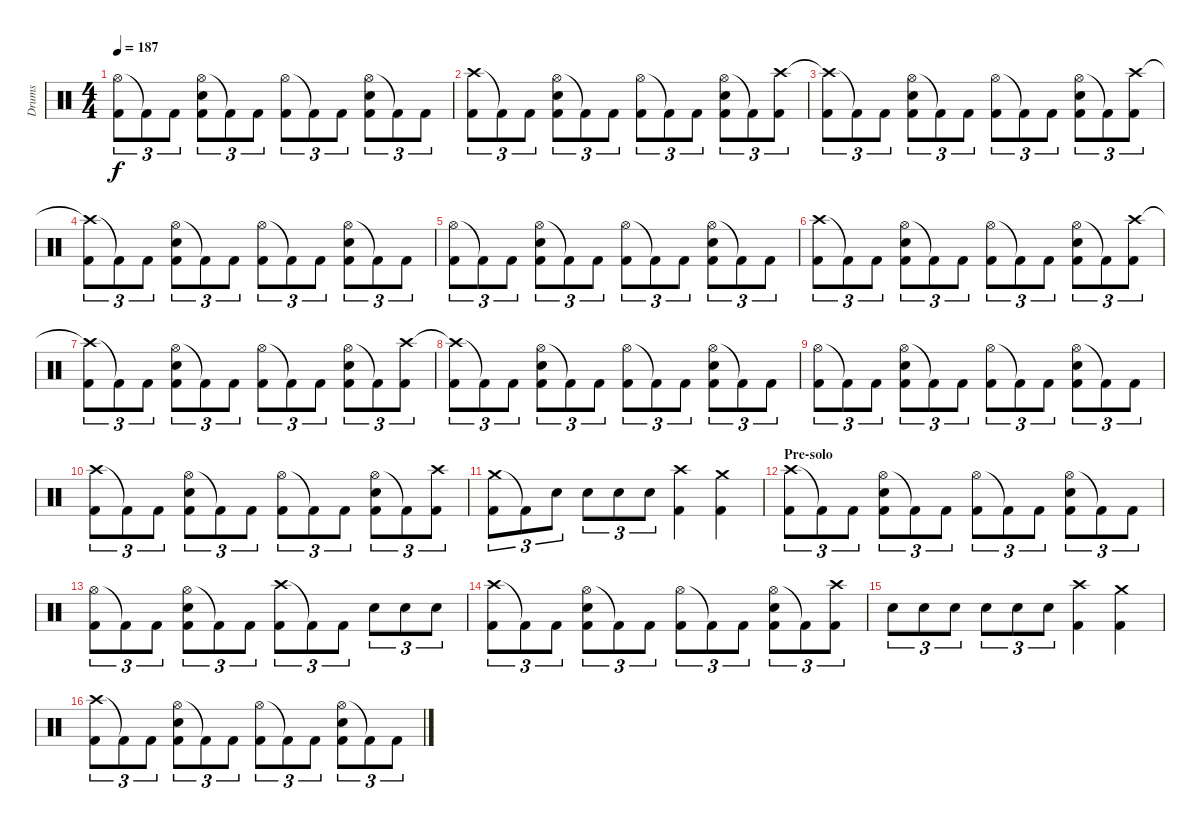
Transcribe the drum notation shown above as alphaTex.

\track ("Drums" "Drums") {instrument percussion}
\staff {score}
\articulation defaults
\ts (4 4)
\tempo 187
\clef neutral
\ks c
("Hi-Hat (open)" "Kick (hit) 2").8{tu (3 2) dy f} "Kick (hit) 2"{t}.8{tu (3 2)} "Kick (hit) 2".8{tu (3 2)} ("Hi-Hat (open)" "Snare (hit) 2" "Kick (hit) 2").8{tu (3 2)} "Kick (hit) 2"{t}.8{tu (3 2)} "Kick (hit) 2".8{tu (3 2)} ("Hi-Hat (open)" "Kick (hit) 2").8{tu (3 2)} "Kick (hit) 2"{t}.8{tu (3 2)} "Kick (hit) 2".8{tu (3 2)} ("Hi-Hat (open)" "Snare (hit) 2" "Kick (hit) 2").8{tu (3 2)} "Kick (hit) 2"{t}.8{tu (3 2)} "Kick (hit) 2".8{tu (3 2)} |
("Crash high (hit)" "Kick (hit) 2").8{tu (3 2)} "Kick (hit) 2"{t}.8{tu (3 2)} "Kick (hit) 2".8{tu (3 2)} ("Hi-Hat (open)" "Snare (hit) 2" "Kick (hit) 2").8{tu (3 2)} "Kick (hit) 2"{t}.8{tu (3 2)} "Kick (hit) 2".8{tu (3 2)} ("Hi-Hat (open)" "Kick (hit) 2").8{tu (3 2)} "Kick (hit) 2"{t}.8{tu (3 2)} "Kick (hit) 2".8{tu (3 2)} ("Hi-Hat (open)" "Snare (hit) 2" "Kick (hit) 2").8{tu (3 2)} "Kick (hit) 2"{t}.8{tu (3 2)} ("Crash high (hit)" "Kick (hit) 2").8{tu (3 2)} |
("Crash high (hit)"{t} "Kick (hit) 2").8{tu (3 2)} "Kick (hit) 2"{t}.8{tu (3 2)} "Kick (hit) 2".8{tu (3 2)} ("Hi-Hat (open)" "Snare (hit) 2" "Kick (hit) 2").8{tu (3 2)} "Kick (hit) 2"{t}.8{tu (3 2)} "Kick (hit) 2".8{tu (3 2)} ("Hi-Hat (open)" "Kick (hit) 2").8{tu (3 2)} "Kick (hit) 2"{t}.8{tu (3 2)} "Kick (hit) 2".8{tu (3 2)} ("Hi-Hat (open)" "Snare (hit) 2" "Kick (hit) 2").8{tu (3 2)} "Kick (hit) 2"{t}.8{tu (3 2)} ("Crash high (hit)" "Kick (hit) 2").8{tu (3 2)} |
("Crash high (hit)"{t} "Kick (hit) 2").8{tu (3 2)} "Kick (hit) 2"{t}.8{tu (3 2)} "Kick (hit) 2".8{tu (3 2)} ("Hi-Hat (open)" "Snare (hit) 2" "Kick (hit) 2").8{tu (3 2)} "Kick (hit) 2"{t}.8{tu (3 2)} "Kick (hit) 2".8{tu (3 2)} ("Hi-Hat (open)" "Kick (hit) 2").8{tu (3 2)} "Kick (hit) 2"{t}.8{tu (3 2)} "Kick (hit) 2".8{tu (3 2)} ("Hi-Hat (open)" "Snare (hit) 2" "Kick (hit) 2").8{tu (3 2)} "Kick (hit) 2"{t}.8{tu (3 2)} "Kick (hit) 2".8{tu (3 2)} |
("Hi-Hat (open)" "Kick (hit) 2").8{tu (3 2)} "Kick (hit) 2"{t}.8{tu (3 2)} "Kick (hit) 2".8{tu (3 2)} ("Hi-Hat (open)" "Snare (hit) 2" "Kick (hit) 2").8{tu (3 2)} "Kick (hit) 2"{t}.8{tu (3 2)} "Kick (hit) 2".8{tu (3 2)} ("Hi-Hat (open)" "Kick (hit) 2").8{tu (3 2)} "Kick (hit) 2"{t}.8{tu (3 2)} "Kick (hit) 2".8{tu (3 2)} ("Hi-Hat (open)" "Snare (hit) 2" "Kick (hit) 2").8{tu (3 2)} "Kick (hit) 2"{t}.8{tu (3 2)} "Kick (hit) 2".8{tu (3 2)} |
("Crash high (hit)" "Kick (hit) 2").8{tu (3 2)} "Kick (hit) 2"{t}.8{tu (3 2)} "Kick (hit) 2".8{tu (3 2)} ("Hi-Hat (open)" "Snare (hit) 2" "Kick (hit) 2").8{tu (3 2)} "Kick (hit) 2"{t}.8{tu (3 2)} "Kick (hit) 2".8{tu (3 2)} ("Hi-Hat (open)" "Kick (hit) 2").8{tu (3 2)} "Kick (hit) 2"{t}.8{tu (3 2)} "Kick (hit) 2".8{tu (3 2)} ("Hi-Hat (open)" "Snare (hit) 2" "Kick (hit) 2").8{tu (3 2)} "Kick (hit) 2"{t}.8{tu (3 2)} ("Crash high (hit)" "Kick (hit) 2").8{tu (3 2)} |
("Crash high (hit)"{t} "Kick (hit) 2").8{tu (3 2)} "Kick (hit) 2"{t}.8{tu (3 2)} "Kick (hit) 2".8{tu (3 2)} ("Hi-Hat (open)" "Snare (hit) 2" "Kick (hit) 2").8{tu (3 2)} "Kick (hit) 2"{t}.8{tu (3 2)} "Kick (hit) 2".8{tu (3 2)} ("Hi-Hat (open)" "Kick (hit) 2").8{tu (3 2)} "Kick (hit) 2"{t}.8{tu (3 2)} "Kick (hit) 2".8{tu (3 2)} ("Hi-Hat (open)" "Snare (hit) 2" "Kick (hit) 2").8{tu (3 2)} "Kick (hit) 2"{t}.8{tu (3 2)} ("Crash high (hit)" "Kick (hit) 2").8{tu (3 2)} |
("Crash high (hit)"{t} "Kick (hit) 2").8{tu (3 2)} "Kick (hit) 2"{t}.8{tu (3 2)} "Kick (hit) 2".8{tu (3 2)} ("Hi-Hat (open)" "Snare (hit) 2" "Kick (hit) 2").8{tu (3 2)} "Kick (hit) 2"{t}.8{tu (3 2)} "Kick (hit) 2".8{tu (3 2)} ("Hi-Hat (open)" "Kick (hit) 2").8{tu (3 2)} "Kick (hit) 2"{t}.8{tu (3 2)} "Kick (hit) 2".8{tu (3 2)} ("Hi-Hat (open)" "Snare (hit) 2" "Kick (hit) 2").8{tu (3 2)} "Kick (hit) 2"{t}.8{tu (3 2)} "Kick (hit) 2".8{tu (3 2)} |
("Hi-Hat (open)" "Kick (hit) 2").8{tu (3 2)} "Kick (hit) 2"{t}.8{tu (3 2)} "Kick (hit) 2".8{tu (3 2)} ("Hi-Hat (open)" "Snare (hit) 2" "Kick (hit) 2").8{tu (3 2)} "Kick (hit) 2"{t}.8{tu (3 2)} "Kick (hit) 2".8{tu (3 2)} ("Hi-Hat (open)" "Kick (hit) 2").8{tu (3 2)} "Kick (hit) 2"{t}.8{tu (3 2)} "Kick (hit) 2".8{tu (3 2)} ("Hi-Hat (open)" "Snare (hit) 2" "Kick (hit) 2").8{tu (3 2)} "Kick (hit) 2"{t}.8{tu (3 2)} "Kick (hit) 2".8{tu (3 2)} |
("Crash high (hit)" "Kick (hit) 2").8{tu (3 2)} "Kick (hit) 2"{t}.8{tu (3 2)} "Kick (hit) 2".8{tu (3 2)} ("Hi-Hat (open)" "Snare (hit) 2" "Kick (hit) 2").8{tu (3 2)} "Kick (hit) 2"{t}.8{tu (3 2)} "Kick (hit) 2".8{tu (3 2)} ("Hi-Hat (open)" "Kick (hit) 2").8{tu (3 2)} "Kick (hit) 2"{t}.8{tu (3 2)} "Kick (hit) 2".8{tu (3 2)} ("Hi-Hat (open)" "Snare (hit) 2" "Kick (hit) 2").8{tu (3 2)} "Kick (hit) 2"{t}.8{tu (3 2)} ("Crash high (hit)" "Kick (hit) 2").8{tu (3 2)} |
("Crash medium (hit)" "Kick (hit) 2").8{tu (3 2)} "Kick (hit) 2"{t}.8{tu (3 2)} "Snare (hit) 2".8{tu (3 2)} "Snare (hit) 2".8{tu (3 2)} "Snare (hit) 2".8{tu (3 2)} "Snare (hit) 2".8{tu (3 2)} ("Crash high (hit)" "Kick (hit) 2").4 ("Crash medium (hit)" "Kick (hit) 2").4 |
\section ("" "Pre-solo")
("Crash high (hit)" "Kick (hit) 2").8{tu (3 2)} "Kick (hit) 2"{t}.8{tu (3 2)} "Kick (hit) 2".8{tu (3 2)} ("Hi-Hat (open)" "Snare (hit) 2" "Kick (hit) 2").8{tu (3 2)} "Kick (hit) 2"{t}.8{tu (3 2)} "Kick (hit) 2".8{tu (3 2)} ("Hi-Hat (open)" "Kick (hit) 2").8{tu (3 2)} "Kick (hit) 2"{t}.8{tu (3 2)} "Kick (hit) 2".8{tu (3 2)} ("Hi-Hat (open)" "Snare (hit) 2" "Kick (hit) 2").8{tu (3 2)} "Kick (hit) 2"{t}.8{tu (3 2)} "Kick (hit) 2".8{tu (3 2)} |
("Hi-Hat (open)" "Kick (hit) 2").8{tu (3 2)} "Kick (hit) 2"{t}.8{tu (3 2)} "Kick (hit) 2".8{tu (3 2)} ("Hi-Hat (open)" "Snare (hit) 2" "Kick (hit) 2").8{tu (3 2)} "Kick (hit) 2"{t}.8{tu (3 2)} "Kick (hit) 2".8{tu (3 2)} ("Crash high (hit)" "Kick (hit) 2").8{tu (3 2)} "Kick (hit) 2"{t}.8{tu (3 2)} "Kick (hit) 2".8{tu (3 2)} "Snare (hit) 2".8{tu (3 2)} "Snare (hit) 2".8{tu (3 2)} "Snare (hit) 2".8{tu (3 2)} |
("Crash high (hit)" "Kick (hit) 2").8{tu (3 2)} "Kick (hit) 2"{t}.8{tu (3 2)} "Kick (hit) 2".8{tu (3 2)} ("Hi-Hat (open)" "Snare (hit) 2" "Kick (hit) 2").8{tu (3 2)} "Kick (hit) 2"{t}.8{tu (3 2)} "Kick (hit) 2".8{tu (3 2)} ("Hi-Hat (open)" "Kick (hit) 2").8{tu (3 2)} "Kick (hit) 2"{t}.8{tu (3 2)} "Kick (hit) 2".8{tu (3 2)} ("Hi-Hat (open)" "Snare (hit) 2" "Kick (hit) 2").8{tu (3 2)} "Kick (hit) 2"{t}.8{tu (3 2)} ("Crash high (hit)" "Kick (hit) 2").8{tu (3 2)} |
"Snare (hit) 2".8{tu (3 2)} "Snare (hit) 2".8{tu (3 2)} "Snare (hit) 2".8{tu (3 2)} "Snare (hit) 2".8{tu (3 2)} "Snare (hit) 2".8{tu (3 2)} "Snare (hit) 2".8{tu (3 2)} ("Crash high (hit)" "Kick (hit) 2").4 ("Crash medium (hit)" "Kick (hit) 2").4 |
("Crash high (hit)" "Kick (hit) 2").8{tu (3 2)} "Kick (hit) 2"{t}.8{tu (3 2)} "Kick (hit) 2".8{tu (3 2)} ("Hi-Hat (open)" "Snare (hit) 2" "Kick (hit) 2").8{tu (3 2)} "Kick (hit) 2"{t}.8{tu (3 2)} "Kick (hit) 2".8{tu (3 2)} ("Hi-Hat (open)" "Kick (hit) 2").8{tu (3 2)} "Kick (hit) 2"{t}.8{tu (3 2)} "Kick (hit) 2".8{tu (3 2)} ("Hi-Hat (open)" "Snare (hit) 2" "Kick (hit) 2").8{tu (3 2)} "Kick (hit) 2"{t}.8{tu (3 2)} "Kick (hit) 2".8{tu (3 2)}
